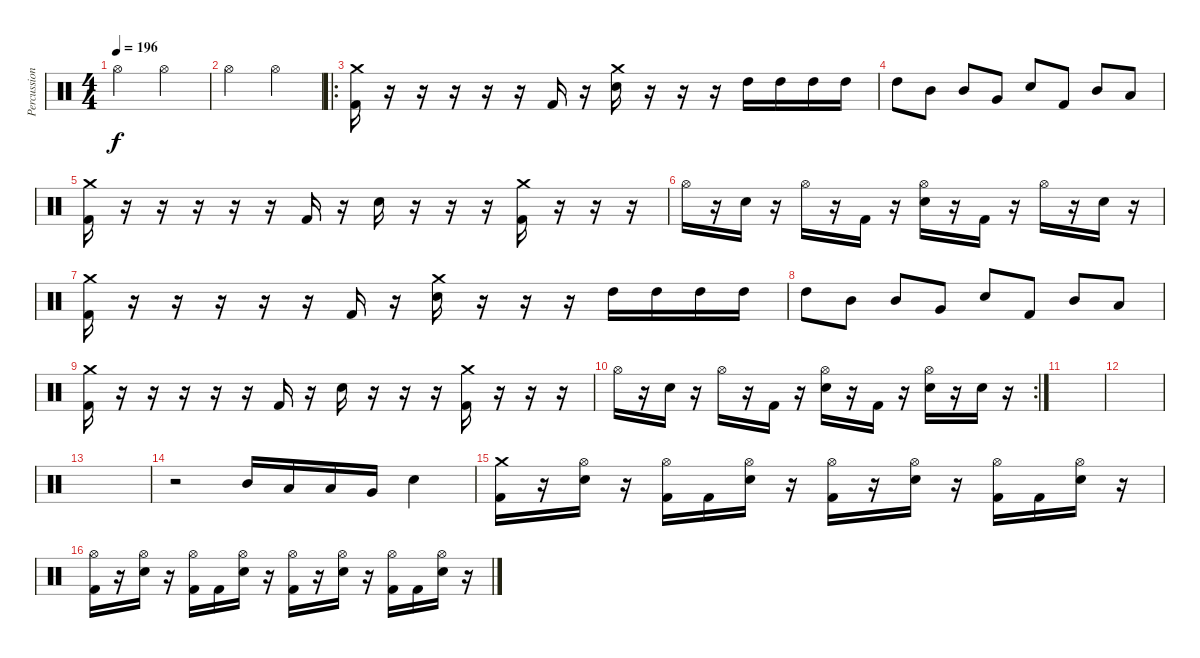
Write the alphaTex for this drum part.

\track ("Percussion" "Percussion") {instrument percussion}
\staff {score}
\articulation defaults
\ts (4 4)
\tempo 196
\clef neutral
\ks c "Hi-Hat (open)".2{dy f} "Hi-Hat (open)".2
|
"Hi-Hat (open)".2 "Hi-Hat (open)".2 |
\ro
("Crash medium (hit)" "Kick (hit) 2").16 r.16 r.16 r.16 r.16 r.16 "Kick (hit) 2".16 r.16 ("Crash medium (hit)" "Electric Snare (hit)").16 r.16 r.16 r.16 "High Tom (hit)".16 "High Tom (hit)".16 "High Tom (hit)".16 "High Tom (hit)".16 |
"High Tom (hit)".8 "Mid Tom (hit)".8 "Mid Tom (hit)".8 "Very Low Tom (hit)".8 "Electric Snare (hit)".8 "Kick (hit) 2".8 "Mid Tom (hit)".8 "Low Tom (hit)".8 |
("Crash medium (hit)" "Kick (hit) 2").16 r.16 r.16 r.16 r.16 r.16 "Kick (hit) 2".16 r.16 "Electric Snare (hit)".16 r.16 r.16 r.16 ("Crash medium (hit)" "Kick (hit) 2").16 r.16 r.16 r.16 |
"Hi-Hat (open)".16 r.16 "Electric Snare (hit)".16 r.16 "Hi-Hat (open)".16 r.16 "Kick (hit) 2".16 r.16 ("Hi-Hat (open)" "Electric Snare (hit)").16 r.16 "Kick (hit) 2".16 r.16 "Hi-Hat (open)".16 r.16 "Electric Snare (hit)".16 r.16 |
("Crash medium (hit)" "Kick (hit) 2").16 r.16 r.16 r.16 r.16 r.16 "Kick (hit) 2".16 r.16 ("Crash medium (hit)" "Electric Snare (hit)").16 r.16 r.16 r.16 "High Tom (hit)".16 "High Tom (hit)".16 "High Tom (hit)".16 "High Tom (hit)".16 |
"High Tom (hit)".8 "Mid Tom (hit)".8 "Mid Tom (hit)".8 "Very Low Tom (hit)".8 "Electric Snare (hit)".8 "Kick (hit) 2".8 "Mid Tom (hit)".8 "Low Tom (hit)".8 |
("Crash medium (hit)" "Kick (hit) 2").16 r.16 r.16 r.16 r.16 r.16 "Kick (hit) 2".16 r.16 "Electric Snare (hit)".16 r.16 r.16 r.16 ("Crash medium (hit)" "Kick (hit) 2").16 r.16 r.16 r.16 |
\rc 2 "Hi-Hat (open)".16
r.16 "Electric Snare (hit)".16 r.16 "Hi-Hat (open)".16 r.16 "Kick (hit) 2".16 r.16 ("Hi-Hat (open)" "Electric Snare (hit)").16 r.16 "Kick (hit) 2".16 r.16 ("Hi-Hat (open)" "Electric Snare (hit)").16 r.16 "Electric Snare (hit)".16 r.16 |
|
|
|
r.2 "Mid Tom (hit)".16 "Low Tom (hit)".16 "Low Tom (hit)".16 "Very Low Tom (hit)".16 "Electric Snare (hit)".4 |
("Crash medium (hit)" "Kick (hit) 2").16 r.16 ("Hi-Hat (open)" "Electric Snare (hit)").16 r.16 ("Hi-Hat (open)" "Kick (hit) 2").16 "Kick (hit) 2".16 ("Hi-Hat (open)" "Electric Snare (hit)").16 r.16 ("Hi-Hat (open)" "Kick (hit) 2").16 r.16 ("Hi-Hat (open)" "Electric Snare (hit)").16 r.16 ("Hi-Hat (open)" "Kick (hit) 2").16 "Kick (hit) 2".16 ("Hi-Hat (open)" "Electric Snare (hit)").16 r.16 |
("Hi-Hat (open)" "Kick (hit) 2").16 r.16 ("Hi-Hat (open)" "Electric Snare (hit)").16 r.16 ("Hi-Hat (open)" "Kick (hit) 2").16 "Kick (hit) 2".16 ("Hi-Hat (open)" "Electric Snare (hit)").16 r.16 ("Hi-Hat (open)" "Kick (hit) 2").16 r.16 ("Hi-Hat (open)" "Electric Snare (hit)").16 r.16 ("Hi-Hat (open)" "Kick (hit) 2").16 "Kick (hit) 2".16 ("Hi-Hat (open)" "Electric Snare (hit)").16 r.16
